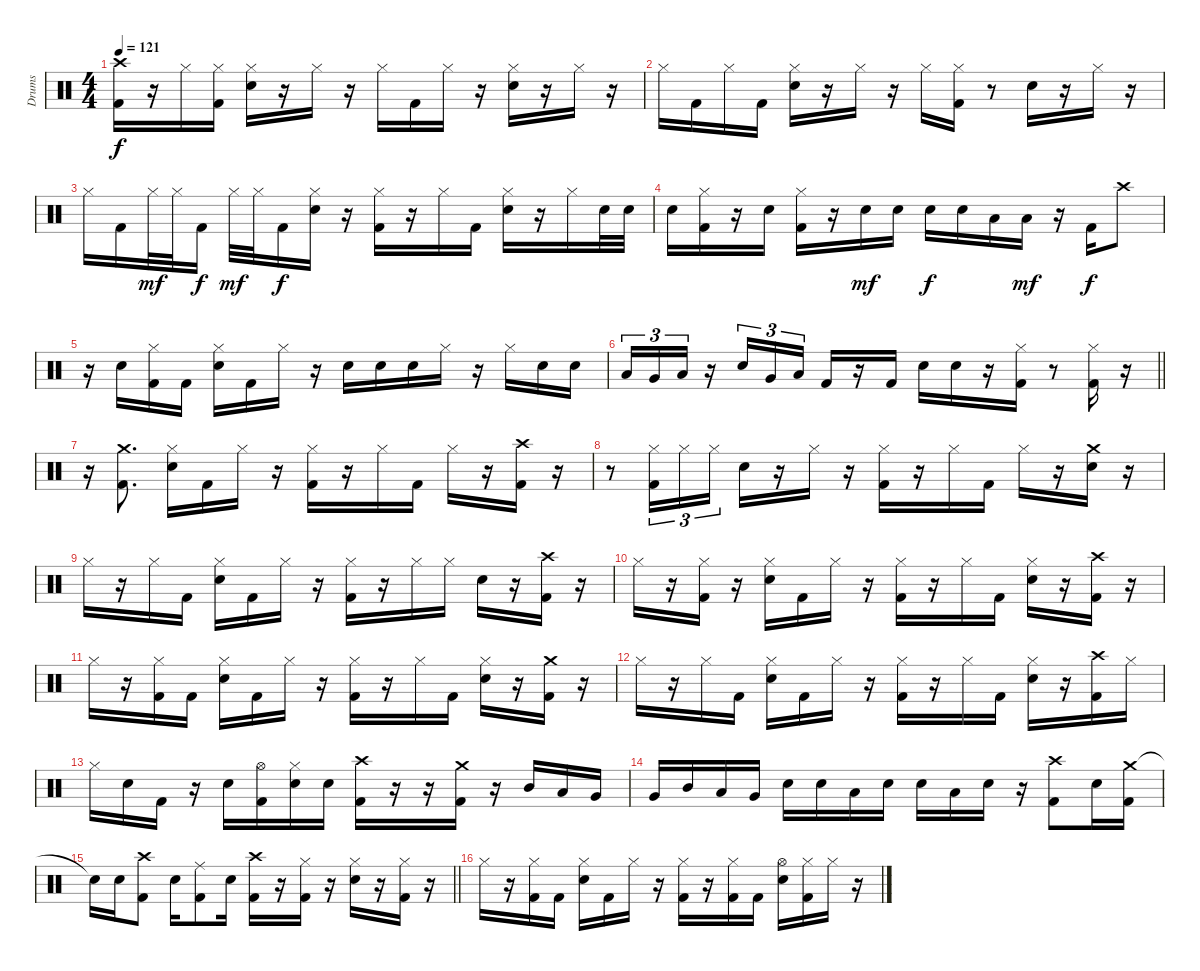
\track ("Drums" "Drums") {instrument percussion}
\staff {score}
\articulation defaults
\ts (4 4)
\tempo 121
\clef neutral
\ks c
("Crash high (hit)" "Kick (hit) 2").16{dy f} r.16 "Hi-Hat (closed)".16 ("Hi-Hat (closed)" "Kick (hit) 2").16 ("Hi-Hat (closed)" "Snare (hit) 2").16 r.16 "Hi-Hat (closed)".16 r.16 "Hi-Hat (closed)".16 "Kick (hit) 2".16 "Hi-Hat (closed)".16 r.16 ("Hi-Hat (closed)" "Snare (hit) 2").16 r.16 "Hi-Hat (closed)".16 r.16 |
"Hi-Hat (closed)".16 "Kick (hit) 2".16 "Hi-Hat (closed)".16 "Kick (hit) 2".16 ("Hi-Hat (closed)" "Snare (hit) 2").16 r.16 "Hi-Hat (closed)".16 r.16 "Hi-Hat (closed)".16 ("Hi-Hat (closed)" "Kick (hit) 2").16 r.8 "Snare (hit) 2".16 r.16 "Hi-Hat (closed)".16 r.16 |
"Hi-Hat (closed)".16 "Kick (hit) 2".16 "Hi-Hat (closed)".32{dy mf} "Hi-Hat (closed)".32 "Kick (hit) 2".16{dy f} "Hi-Hat (closed)".32{dy mf} "Hi-Hat (closed)".32 "Kick (hit) 2".16{dy f} ("Hi-Hat (closed)" "Snare (hit) 2").16 r.16 ("Hi-Hat (closed)" "Kick (hit) 2").16 r.16 "Hi-Hat (closed)".16 "Kick (hit) 2".16 ("Hi-Hat (closed)" "Snare (hit) 2").16 r.16 "Hi-Hat (closed)".16 "Snare (hit) 2".32 "Snare (hit) 2".32 |
"Snare (hit) 2".16 ("Hi-Hat (closed)" "Kick (hit) 2").16 r.16 "Snare (hit) 2".16 ("Hi-Hat (closed)" "Kick (hit) 2").16 r.16 "Snare (hit) 2".16{dy mf} "Snare (hit) 2".16 "Snare (hit) 2".16{dy f} "Snare (hit) 2".16 "Low Tom (hit)".16 "Low Tom (hit)".16{dy mf} r.16 "Kick (hit) 2".16{dy f} "Crash high (hit)".8 |
r.16 "Snare (hit) 2".16 ("Hi-Hat (closed)" "Kick (hit) 2").16 "Kick (hit) 2".16 ("Hi-Hat (closed)" "Snare (hit) 2").16 "Kick (hit) 2".16 "Hi-Hat (closed)".16 r.16 "Snare (hit) 2".16 "Snare (hit) 2".16 "Snare (hit) 2".16 "Hi-Hat (closed)".16 r.16 "Hi-Hat (closed)".16 "Snare (hit) 2".16 "Snare (hit) 2".16 |
\barLineRight lightlight "Low Tom (hit)".16{tu (3 2)} "Very Low Tom (hit)".16{tu (3 2)} "Low Floor Tom (hit)".16{tu (3 2)}
r.16 "Snare (hit) 2".16{tu (3 2)} "Very Low Tom (hit)".16{tu (3 2)} "Low Floor Tom (hit)".16{tu (3 2)} "Kick (hit) 2".16 r.16 "Kick (hit) 2".16 "Snare (hit) 2".16 "Snare (hit) 2".16 r.16 ("Hi-Hat (closed)" "Kick (hit) 2").16 r.8 ("Hi-Hat (closed)" "Kick (hit) 2").16 r.16 |
\section ("" "")
r.16 ("Crash medium (hit)" "Kick (hit) 2").8{d} ("Hi-Hat (closed)" "Snare (hit) 2").16 "Kick (hit) 2".16 "Hi-Hat (closed)".16 r.16 ("Hi-Hat (closed)" "Kick (hit) 2").16 r.16 "Hi-Hat (closed)".16 "Kick (hit) 2".16 "Hi-Hat (closed)".16 r.16 ("Crash high (hit)" "Kick (hit) 2").16 r.16 |
r.8 ("Hi-Hat (closed)" "Kick (hit) 2").16{tu (3 2)} "Hi-Hat (closed)".16{tu (3 2)} "Hi-Hat (closed)".16{tu (3 2)} "Snare (hit) 2".16 r.16 "Hi-Hat (closed)".16 r.16 ("Hi-Hat (closed)" "Kick (hit) 2").16 r.16 "Hi-Hat (closed)".16 "Kick (hit) 2".16 "Hi-Hat (closed)".16 r.16 ("Crash medium (hit)" "Snare (hit) 2").16 r.16 |
"Hi-Hat (closed)".16 r.16 "Hi-Hat (closed)".16 "Kick (hit) 2".16 ("Hi-Hat (closed)" "Snare (hit) 2").16 "Kick (hit) 2".16 "Hi-Hat (closed)".16 r.16 ("Hi-Hat (closed)" "Kick (hit) 2").16 r.16 "Hi-Hat (closed)".16 "Hi-Hat (closed)".16 "Snare (hit) 2".16 r.16 ("Crash high (hit)" "Kick (hit) 2").16 r.16 |
"Hi-Hat (closed)".16 r.16 ("Hi-Hat (closed)" "Kick (hit) 2").16 r.16 ("Hi-Hat (closed)" "Snare (hit) 2").16 "Kick (hit) 2".16 "Hi-Hat (closed)".16 r.16 ("Hi-Hat (closed)" "Kick (hit) 2").16 r.16 "Hi-Hat (closed)".16 "Kick (hit) 2".16 ("Hi-Hat (closed)" "Snare (hit) 2").16 r.16 ("Crash high (hit)" "Kick (hit) 2").16 r.16 |
"Hi-Hat (closed)".16 r.16 ("Hi-Hat (closed)" "Kick (hit) 2").16 "Kick (hit) 2".16 ("Hi-Hat (closed)" "Snare (hit) 2").16 "Kick (hit) 2".16 "Hi-Hat (closed)".16 r.16 ("Hi-Hat (closed)" "Kick (hit) 2").16 r.16 "Hi-Hat (closed)".16 "Kick (hit) 2".16 ("Hi-Hat (closed)" "Snare (hit) 2").16 r.16 ("Crash medium (hit)" "Kick (hit) 2").16 r.16 |
"Hi-Hat (closed)".16 r.16 "Hi-Hat (closed)".16 "Kick (hit) 2".16 ("Hi-Hat (closed)" "Snare (hit) 2").16 "Kick (hit) 2".16 "Hi-Hat (closed)".16 r.16 ("Hi-Hat (closed)" "Kick (hit) 2").16 r.16 "Hi-Hat (closed)".16 "Kick (hit) 2".16 ("Hi-Hat (closed)" "Snare (hit) 2").16 r.16 ("Crash high (hit)" "Kick (hit) 2").16 "Hi-Hat (closed)".16 |
"Hi-Hat (closed)".16 "Snare (hit) 2".16 "Kick (hit) 2".16 r.16 "Snare (hit) 2".16 ("Hi-Hat (open)" "Kick (hit) 2").16 ("Hi-Hat (closed)" "Snare (hit) 2").16 "Snare (hit) 2".16 ("Crash high (hit)" "Kick (hit) 2").16 r.16 r.16 ("Crash medium (hit)" "Kick (hit) 2").16 r.16 "Mid Tom (hit)".16 "Low Tom (hit)".16 "Very Low Tom (hit)".16 |
"Very Low Tom (hit)".16 "Mid Tom (hit)".16 "Low Tom (hit)".16 "Very Low Tom (hit)".16 "Snare (hit) 2".16 "Snare (hit) 2".16 "Low Tom (hit)".16 "Snare (hit) 2".16 "Snare (hit) 2".16 "Low Tom (hit)".16 "Snare (hit) 2".16 r.16 ("Crash high (hit)" "Kick (hit) 2").8 "Snare (hit) 2".16 ("Crash medium (hit)" "Kick (hit) 2").16 |
\barLineRight lightlight "Snare (hit)"{t}.16 "Snare (hit) 2".16
("Crash high (hit)" "Kick (hit) 2").8 "Snare (hit) 2".16 ("Ride (middle)" "Kick (hit) 2").8 "Snare (hit) 2".16 ("Crash high (hit)" "Kick (hit) 2").16 r.16 ("Hi-Hat (closed)" "Kick (hit) 2").16 r.16 ("Hi-Hat (closed)" "Snare (hit) 2").16 r.16 ("Hi-Hat (closed)" "Kick (hit) 2").16 r.16 |
\section ("" "")
"Hi-Hat (closed)".16 r.16 ("Hi-Hat (closed)" "Kick (hit) 2").16 "Kick (hit) 2".16 ("Hi-Hat (closed)" "Snare (hit) 2").16 "Kick (hit) 2".16 "Hi-Hat (closed)".16 r.16 ("Hi-Hat (closed)" "Kick (hit) 2").16 r.16 ("Hi-Hat (closed)" "Kick (hit) 2").16 "Kick (hit) 2".16 ("Hi-Hat (open)" "Snare (hit) 2").16 ("Hi-Hat (closed)" "Kick (hit) 2").16 "Hi-Hat (closed)".16 r.16
